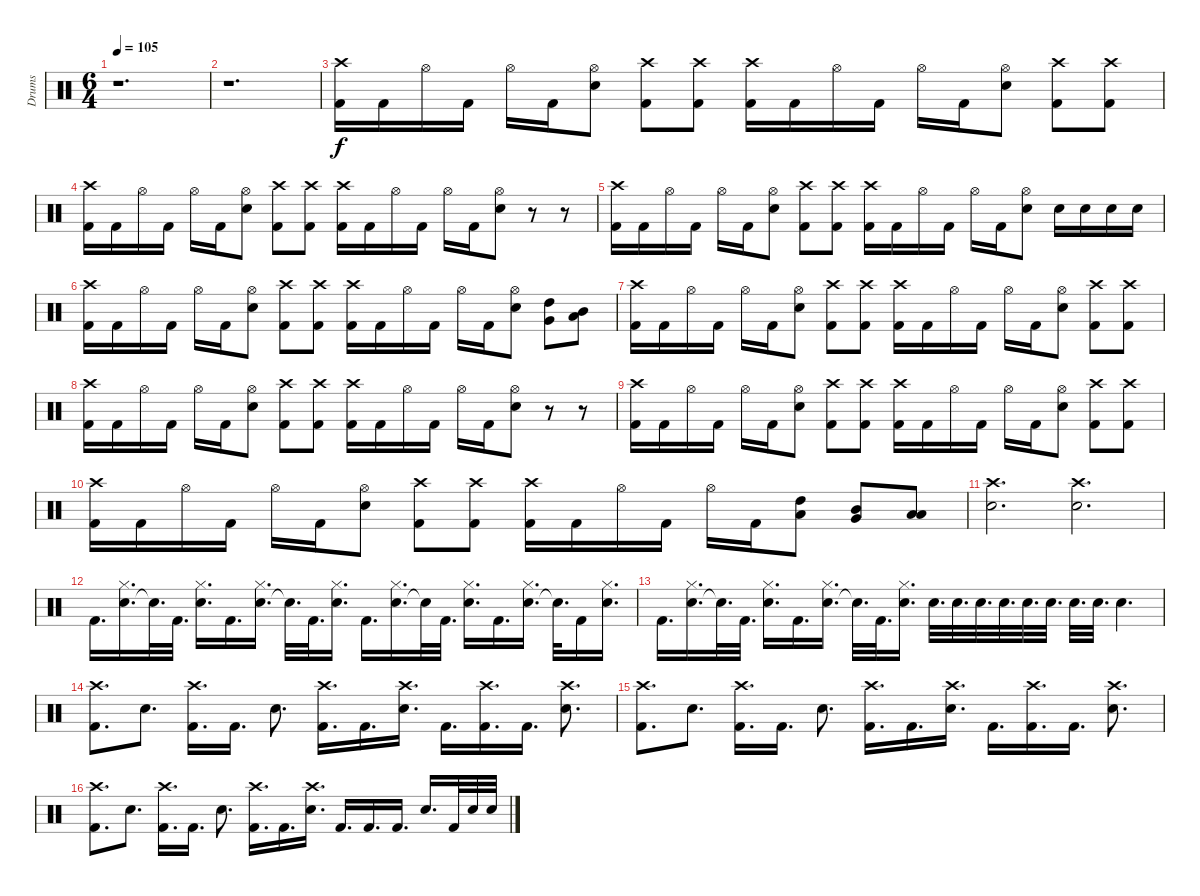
\track ("Drums" "Drums") {instrument percussion}
\staff {score}
\articulation defaults
\ts (6 4)
\tempo 105
\clef neutral
\ks c
r.1{d dy f} |
r.1{d} |
("Kick (hit) 2" "Crash high (hit)").16 "Kick (hit) 2".16 "Hi-Hat (open)".16 "Kick (hit) 2".16 "Hi-Hat (open)".16 "Kick (hit) 2".16 ("Snare (hit) 2" "Hi-Hat (open)").8 ("Kick (hit) 2" "Crash high (hit)").8 ("Kick (hit) 2" "Crash high (hit)").8 ("Kick (hit) 2" "Crash high (hit)").16 "Kick (hit) 2".16 "Hi-Hat (open)".16 "Kick (hit) 2".16 "Hi-Hat (open)".16 "Kick (hit) 2".16 ("Snare (hit) 2" "Hi-Hat (open)").8 ("Kick (hit) 2" "Crash high (hit)").8 ("Kick (hit) 2" "Crash high (hit)").8 |
("Kick (hit) 2" "Crash high (hit)").16 "Kick (hit) 2".16 "Hi-Hat (open)".16 "Kick (hit) 2".16 "Hi-Hat (open)".16 "Kick (hit) 2".16 ("Snare (hit) 2" "Hi-Hat (open)").8 ("Kick (hit) 2" "Crash high (hit)").8 ("Kick (hit) 2" "Crash high (hit)").8 ("Kick (hit) 2" "Crash high (hit)").16 "Kick (hit) 2".16 "Hi-Hat (open)".16 "Kick (hit) 2".16 "Hi-Hat (open)".16 "Kick (hit) 2".16 ("Snare (hit) 2" "Hi-Hat (open)").8 r.8 r.8 |
("Kick (hit) 2" "Crash high (hit)").16 "Kick (hit) 2".16 "Hi-Hat (open)".16 "Kick (hit) 2".16 "Hi-Hat (open)".16 "Kick (hit) 2".16 ("Snare (hit) 2" "Hi-Hat (open)").8 ("Kick (hit) 2" "Crash high (hit)").8 ("Kick (hit) 2" "Crash high (hit)").8 ("Kick (hit) 2" "Crash high (hit)").16 "Kick (hit) 2".16 "Hi-Hat (open)".16 "Kick (hit) 2".16 "Hi-Hat (open)".16 "Kick (hit) 2".16 ("Snare (hit) 2" "Hi-Hat (open)").8 "Electric Snare (hit)".16 "Electric Snare (hit)".16 "Electric Snare (hit)".16 "Electric Snare (hit)".16 |
("Kick (hit) 2" "Crash high (hit)").16 "Kick (hit) 2".16 "Hi-Hat (open)".16 "Kick (hit) 2".16 "Hi-Hat (open)".16 "Kick (hit) 2".16 ("Snare (hit) 2" "Hi-Hat (open)").8 ("Kick (hit) 2" "Crash high (hit)").8 ("Kick (hit) 2" "Crash high (hit)").8 ("Kick (hit) 2" "Crash high (hit)").16 "Kick (hit) 2".16 "Hi-Hat (open)".16 "Kick (hit) 2".16 "Hi-Hat (open)".16 "Kick (hit) 2".16 ("Snare (hit) 2" "Hi-Hat (open)").8 ("High Tom (hit)" "Very Low Tom (hit)").8 ("Mid Tom (hit)" "Low Floor Tom (hit)").8 |
("Kick (hit) 2" "Crash high (hit)").16 "Kick (hit) 2".16 "Hi-Hat (open)".16 "Kick (hit) 2".16 "Hi-Hat (open)".16 "Kick (hit) 2".16 ("Snare (hit) 2" "Hi-Hat (open)").8 ("Kick (hit) 2" "Crash high (hit)").8 ("Kick (hit) 2" "Crash high (hit)").8 ("Kick (hit) 2" "Crash high (hit)").16 "Kick (hit) 2".16 "Hi-Hat (open)".16 "Kick (hit) 2".16 "Hi-Hat (open)".16 "Kick (hit) 2".16 ("Snare (hit) 2" "Hi-Hat (open)").8 ("Kick (hit) 2" "Crash high (hit)").8 ("Kick (hit) 2" "Crash high (hit)").8 |
("Kick (hit) 2" "Crash high (hit)").16 "Kick (hit) 2".16 "Hi-Hat (open)".16 "Kick (hit) 2".16 "Hi-Hat (open)".16 "Kick (hit) 2".16 ("Snare (hit) 2" "Hi-Hat (open)").8 ("Kick (hit) 2" "Crash high (hit)").8 ("Kick (hit) 2" "Crash high (hit)").8 ("Kick (hit) 2" "Crash high (hit)").16 "Kick (hit) 2".16 "Hi-Hat (open)".16 "Kick (hit) 2".16 "Hi-Hat (open)".16 "Kick (hit) 2".16 ("Snare (hit) 2" "Hi-Hat (open)").8 r.8 r.8 |
("Kick (hit) 2" "Crash high (hit)").16 "Kick (hit) 2".16 "Hi-Hat (open)".16 "Kick (hit) 2".16 "Hi-Hat (open)".16 "Kick (hit) 2".16 ("Snare (hit) 2" "Hi-Hat (open)").8 ("Kick (hit) 2" "Crash high (hit)").8 ("Kick (hit) 2" "Crash high (hit)").8 ("Kick (hit) 2" "Crash high (hit)").16 "Kick (hit) 2".16 "Hi-Hat (open)".16 "Kick (hit) 2".16 "Hi-Hat (open)".16 "Kick (hit) 2".16 ("Snare (hit) 2" "Hi-Hat (open)").8 ("Kick (hit) 2" "Crash high (hit)").8 ("Kick (hit) 2" "Crash high (hit)").8 |
("Kick (hit) 2" "Crash high (hit)").16 "Kick (hit) 2".16 "Hi-Hat (open)".16 "Kick (hit) 2".16 "Hi-Hat (open)".16 "Kick (hit) 2".16 ("Snare (hit) 2" "Hi-Hat (open)").8 ("Kick (hit) 2" "Crash high (hit)").8 ("Kick (hit) 2" "Crash high (hit)").8 ("Kick (hit) 2" "Crash high (hit)").16 "Kick (hit) 2".16 "Hi-Hat (open)".16 "Kick (hit) 2".16 "Hi-Hat (open)".16 "Kick (hit) 2".16 ("High Tom (hit)" "Low Tom (hit)").8 ("Mid Tom (hit)" "Very Low Tom (hit)").8 ("Low Tom (hit)" "Low Floor Tom (hit)").8 |
("Crash high (hit)" "Snare (hit) 2").2{d} ("Crash high (hit)" "Snare (hit) 2").2{d} |
"Kick (hit) 2".16{d} ("Snare (hit) 2" "Hi-Hat (closed)").16{d} "Snare (hit) 2"{t}.32{d} "Kick (hit) 2".32{d} ("Snare (hit) 2" "Hi-Hat (closed)").16{d} "Kick (hit) 2".16{d} ("Snare (hit) 2" "Hi-Hat (closed)").16{d} "Snare (hit) 2"{t}.32{d} "Kick (hit) 2".32{d} ("Snare (hit) 2" "Hi-Hat (closed)").16{d} "Kick (hit) 2".16{d} ("Snare (hit) 2" "Hi-Hat (closed)").16{d} "Snare (hit) 2"{t}.32 "Kick (hit) 2".32{d} ("Snare (hit) 2" "Hi-Hat (closed)").16{d} "Kick (hit) 2".16{d} ("Snare (hit) 2" "Hi-Hat (closed)").16{d} "Snare (hit) 2"{t}.32{d} "Kick (hit) 2".16 ("Snare (hit) 2" "Hi-Hat (closed)").16{d} |
"Kick (hit) 2".16{d} ("Snare (hit) 2" "Hi-Hat (closed)").16{d} "Snare (hit) 2"{t}.32{d} "Kick (hit) 2".32{d} ("Snare (hit) 2" "Hi-Hat (closed)").16{d} "Kick (hit) 2".16{d} ("Snare (hit) 2" "Hi-Hat (closed)").16{d} "Snare (hit) 2"{t}.32{d} "Kick (hit) 2".32{d} ("Snare (hit) 2" "Hi-Hat (closed)").16{d} "Snare (hit) 2".32{d} "Snare (hit) 2".32{d} "Snare (hit) 2".32{d} "Snare (hit) 2".32{d} "Snare (hit) 2".32{d} "Snare (hit) 2".32{d} "Snare (hit) 2".32{d} "Snare (hit) 2".32{d} "Snare (hit) 2".4{d} |
("Kick (hit) 2" "Crash high (hit)").8{d} "Snare (hit) 2".8{d} ("Kick (hit) 2" "Crash high (hit)").16{d} "Kick (hit) 2".16{d} "Snare (hit) 2".8{d} ("Kick (hit) 2" "Crash high (hit)").16{d} "Kick (hit) 2".16{d} ("Snare (hit) 2" "Crash high (hit)").16{d} "Kick (hit) 2".16{d} ("Kick (hit) 2" "Crash high (hit)").16{d} "Kick (hit) 2".16{d} ("Snare (hit) 2" "Crash high (hit)").8{d} |
("Kick (hit) 2" "Crash high (hit)").8{d} "Snare (hit) 2".8{d} ("Kick (hit) 2" "Crash high (hit)").16{d} "Kick (hit) 2".16{d} "Snare (hit) 2".8{d} ("Kick (hit) 2" "Crash high (hit)").16{d} "Kick (hit) 2".16{d} ("Snare (hit) 2" "Crash high (hit)").16{d} "Kick (hit) 2".16{d} ("Kick (hit) 2" "Crash high (hit)").16{d} "Kick (hit) 2".16{d} ("Snare (hit) 2" "Crash high (hit)").8{d} |
("Kick (hit) 2" "Crash high (hit)").8{d} "Snare (hit) 2".8{d} ("Kick (hit) 2" "Crash high (hit)").16{d} "Kick (hit) 2".16{d} "Snare (hit) 2".8{d} ("Kick (hit) 2" "Crash high (hit)").16{d} "Kick (hit) 2".16{d} ("Snare (hit) 2" "Crash high (hit)").16{d} "Kick (hit) 2".16{d} "Kick (hit) 2".16{d} "Kick (hit) 2".16{d} "Snare (hit) 2".16{d} "Kick (hit) 2".32 "Snare (hit) 2".32 "Snare (hit) 2".32
